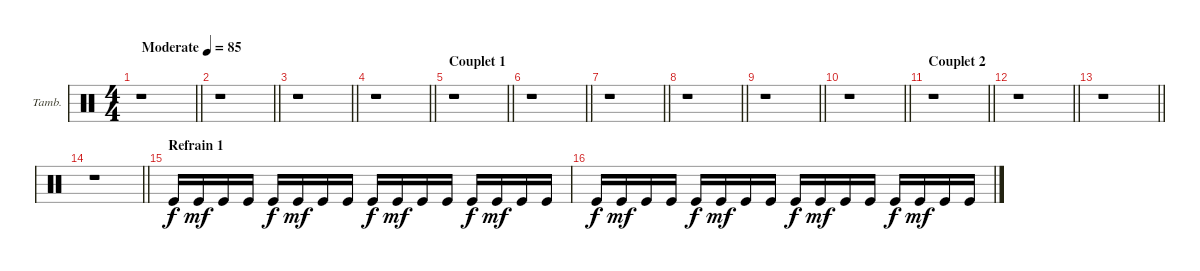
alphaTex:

\bracketExtendMode groupsimilarinstruments
\firstSystemTrackNameOrientation horizontal
\otherSystemsTrackNameOrientation horizontal
\chordDiagramsInScore
\track ("Tambourine" "Tamb.") {instrument percussion}
\staff {score}
\articulation defaults
\ts (4 4)
\beaming (8 2 2 2 2)
\tempo (85 "Moderate")
\clef neutral
\barLineRight lightlight
\ks c
r.1{dy f} |
\barLineRight lightlight
r.1 |
\barLineRight lightlight
r.1 |
\barLineRight lightlight
r.1 |
\section ("" "Couplet 1")
\barLineRight lightlight
r.1 |
\barLineRight lightlight
r.1 |
\barLineRight lightlight
r.1 |
\barLineRight lightlight
r.1 |
\barLineRight lightlight
r.1 |
\barLineRight lightlight
r.1 |
\section ("" "Couplet 2")
\barLineRight lightlight
r.1 |
\barLineRight lightlight
r.1 |
\barLineRight lightlight
r.1 |
\barLineRight lightlight
r.1 |
\section ("" "Refrain 1")
"Kick (hit)".16 "Kick (hit)".16{dy mf} "Kick (hit)".16 "Kick (hit)".16 "Kick (hit)".16{dy f} "Kick (hit)".16{dy mf} "Kick (hit)".16 "Kick (hit)".16 "Kick (hit)".16{dy f} "Kick (hit)".16{dy mf} "Kick (hit)".16 "Kick (hit)".16 "Kick (hit)".16{dy f} "Kick (hit)".16{dy mf} "Kick (hit)".16 "Kick (hit)".16 |
"Kick (hit)".16{dy f} "Kick (hit)".16{dy mf} "Kick (hit)".16 "Kick (hit)".16 "Kick (hit)".16{dy f} "Kick (hit)".16{dy mf} "Kick (hit)".16 "Kick (hit)".16 "Kick (hit)".16{dy f} "Kick (hit)".16{dy mf} "Kick (hit)".16 "Kick (hit)".16 "Kick (hit)".16{dy f} "Kick (hit)".16{dy mf} "Kick (hit)".16 "Kick (hit)".16
